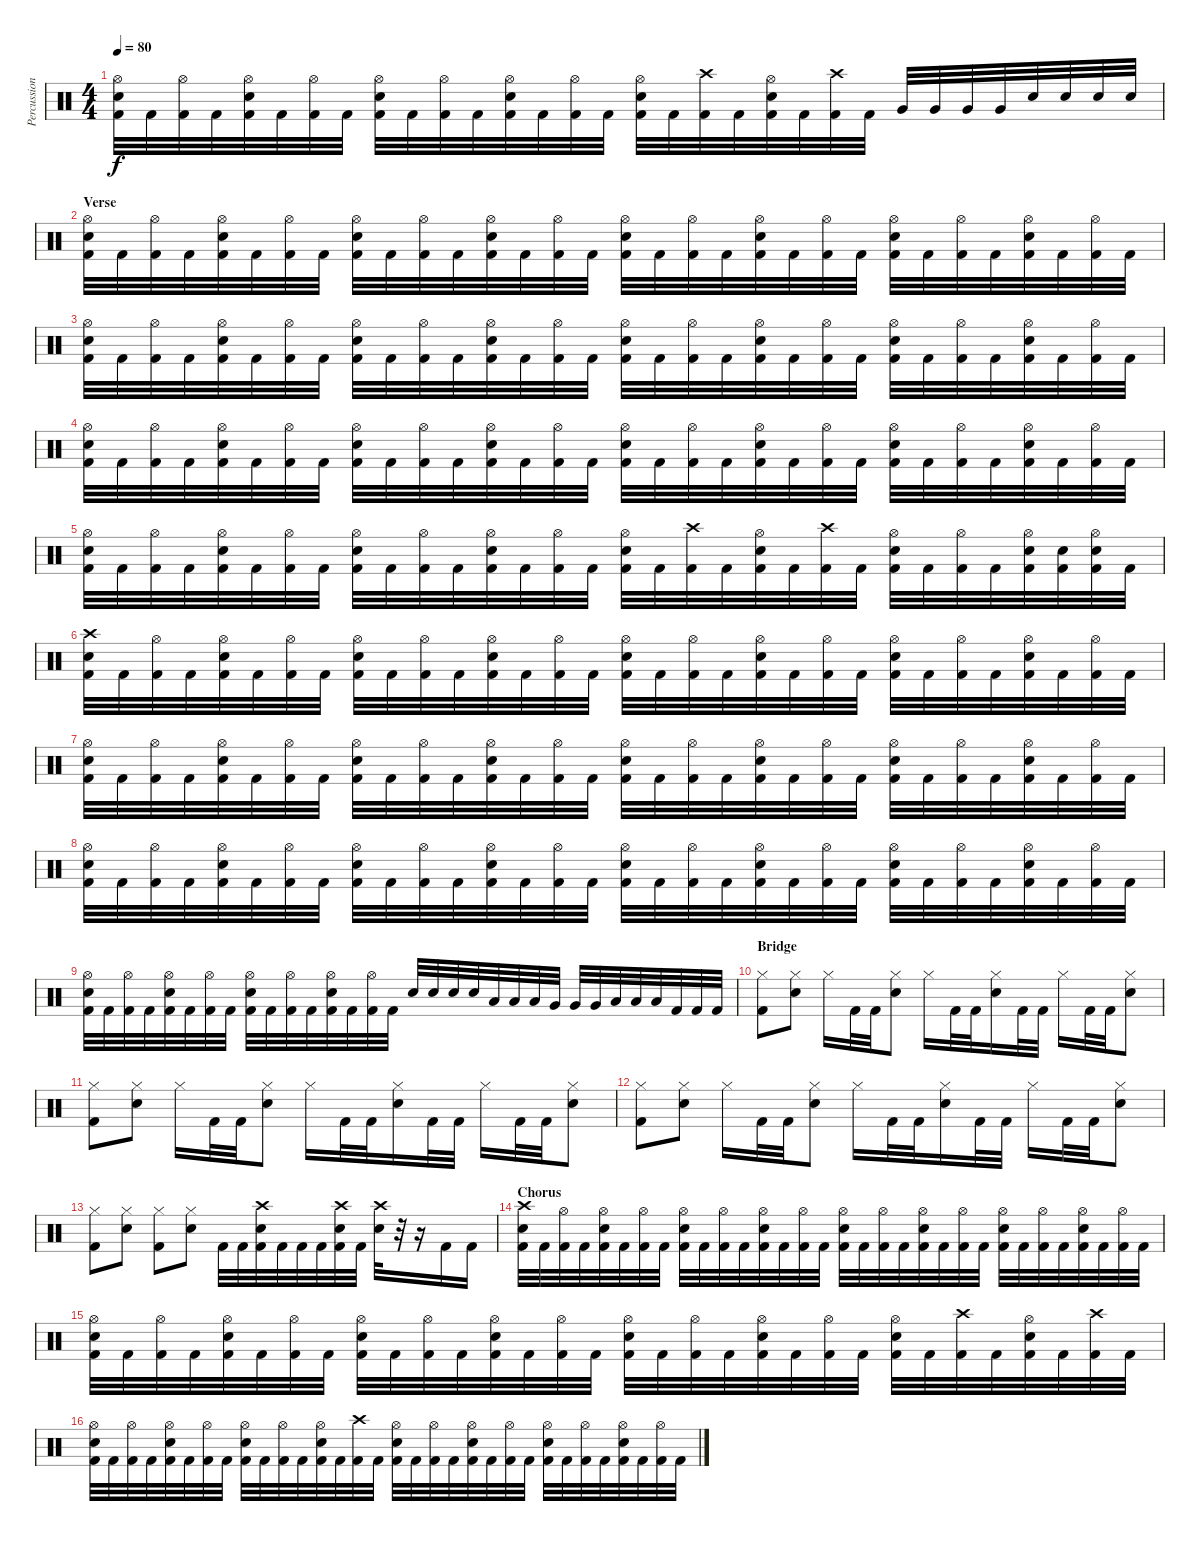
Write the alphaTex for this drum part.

\track ("Percussions" "Percussion") {instrument percussion}
\staff {score}
\articulation defaults
\ts (4 4)
\tempo 80
\clef neutral
\ks c
("Hi-Hat (open)" "Electric Snare (hit)" "Kick (hit) 2").32{dy f} "Kick (hit) 2".32 ("Hi-Hat (open)" "Kick (hit) 2").32 "Kick (hit) 2".32 ("Hi-Hat (open)" "Electric Snare (hit)" "Kick (hit) 2").32 "Kick (hit) 2".32 ("Hi-Hat (open)" "Kick (hit) 2").32 "Kick (hit) 2".32 ("Hi-Hat (open)" "Electric Snare (hit)" "Kick (hit) 2").32 "Kick (hit) 2".32 ("Hi-Hat (open)" "Kick (hit) 2").32 "Kick (hit) 2".32 ("Hi-Hat (open)" "Electric Snare (hit)" "Kick (hit) 2").32 "Kick (hit) 2".32 ("Hi-Hat (open)" "Kick (hit) 2").32 "Kick (hit) 2".32 ("Hi-Hat (open)" "Electric Snare (hit)" "Kick (hit) 2").32 "Kick (hit) 2".32 ("Crash high (hit)" "Kick (hit) 2").32 "Kick (hit) 2".32 ("Hi-Hat (open)" "Electric Snare (hit)" "Kick (hit) 2").32 "Kick (hit) 2".32 ("Crash high (hit)" "Kick (hit) 2").32 "Kick (hit) 2".32 "Very Low Tom (hit)".32 "Very Low Tom (hit)".32 "Very Low Tom (hit)".32 "Very Low Tom (hit)".32 "Electric Snare (hit)".32 "Electric Snare (hit)".32 "Electric Snare (hit)".32 "Electric Snare (hit)".32 |
\section ("" "Verse")
("Hi-Hat (open)" "Electric Snare (hit)" "Kick (hit) 2").32 "Kick (hit) 2".32 ("Hi-Hat (open)" "Kick (hit) 2").32 "Kick (hit) 2".32 ("Hi-Hat (open)" "Electric Snare (hit)" "Kick (hit) 2").32 "Kick (hit) 2".32 ("Hi-Hat (open)" "Kick (hit) 2").32 "Kick (hit) 2".32 ("Hi-Hat (open)" "Electric Snare (hit)" "Kick (hit) 2").32 "Kick (hit) 2".32 ("Hi-Hat (open)" "Kick (hit) 2").32 "Kick (hit) 2".32 ("Hi-Hat (open)" "Electric Snare (hit)" "Kick (hit) 2").32 "Kick (hit) 2".32 ("Hi-Hat (open)" "Kick (hit) 2").32 "Kick (hit) 2".32 ("Hi-Hat (open)" "Electric Snare (hit)" "Kick (hit) 2").32 "Kick (hit) 2".32 ("Hi-Hat (open)" "Kick (hit) 2").32 "Kick (hit) 2".32 ("Hi-Hat (open)" "Electric Snare (hit)" "Kick (hit) 2").32 "Kick (hit) 2".32 ("Hi-Hat (open)" "Kick (hit) 2").32 "Kick (hit) 2".32 ("Hi-Hat (open)" "Electric Snare (hit)" "Kick (hit) 2").32 "Kick (hit) 2".32 ("Hi-Hat (open)" "Kick (hit) 2").32 "Kick (hit) 2".32 ("Hi-Hat (open)" "Electric Snare (hit)" "Kick (hit) 2").32 "Kick (hit) 2".32 ("Hi-Hat (open)" "Kick (hit) 2").32 "Kick (hit) 2".32 |
("Hi-Hat (open)" "Electric Snare (hit)" "Kick (hit) 2").32 "Kick (hit) 2".32 ("Hi-Hat (open)" "Kick (hit) 2").32 "Kick (hit) 2".32 ("Hi-Hat (open)" "Electric Snare (hit)" "Kick (hit) 2").32 "Kick (hit) 2".32 ("Hi-Hat (open)" "Kick (hit) 2").32 "Kick (hit) 2".32 ("Hi-Hat (open)" "Electric Snare (hit)" "Kick (hit) 2").32 "Kick (hit) 2".32 ("Hi-Hat (open)" "Kick (hit) 2").32 "Kick (hit) 2".32 ("Hi-Hat (open)" "Electric Snare (hit)" "Kick (hit) 2").32 "Kick (hit) 2".32 ("Hi-Hat (open)" "Kick (hit) 2").32 "Kick (hit) 2".32 ("Hi-Hat (open)" "Electric Snare (hit)" "Kick (hit) 2").32 "Kick (hit) 2".32 ("Hi-Hat (open)" "Kick (hit) 2").32 "Kick (hit) 2".32 ("Hi-Hat (open)" "Electric Snare (hit)" "Kick (hit) 2").32 "Kick (hit) 2".32 ("Hi-Hat (open)" "Kick (hit) 2").32 "Kick (hit) 2".32 ("Hi-Hat (open)" "Electric Snare (hit)" "Kick (hit) 2").32 "Kick (hit) 2".32 ("Hi-Hat (open)" "Kick (hit) 2").32 "Kick (hit) 2".32 ("Hi-Hat (open)" "Electric Snare (hit)" "Kick (hit) 2").32 "Kick (hit) 2".32 ("Hi-Hat (open)" "Kick (hit) 2").32 "Kick (hit) 2".32 |
("Hi-Hat (open)" "Electric Snare (hit)" "Kick (hit) 2").32 "Kick (hit) 2".32 ("Hi-Hat (open)" "Kick (hit) 2").32 "Kick (hit) 2".32 ("Hi-Hat (open)" "Electric Snare (hit)" "Kick (hit) 2").32 "Kick (hit) 2".32 ("Hi-Hat (open)" "Kick (hit) 2").32 "Kick (hit) 2".32 ("Hi-Hat (open)" "Electric Snare (hit)" "Kick (hit) 2").32 "Kick (hit) 2".32 ("Hi-Hat (open)" "Kick (hit) 2").32 "Kick (hit) 2".32 ("Hi-Hat (open)" "Electric Snare (hit)" "Kick (hit) 2").32 "Kick (hit) 2".32 ("Hi-Hat (open)" "Kick (hit) 2").32 "Kick (hit) 2".32 ("Hi-Hat (open)" "Electric Snare (hit)" "Kick (hit) 2").32 "Kick (hit) 2".32 ("Hi-Hat (open)" "Kick (hit) 2").32 "Kick (hit) 2".32 ("Hi-Hat (open)" "Electric Snare (hit)" "Kick (hit) 2").32 "Kick (hit) 2".32 ("Hi-Hat (open)" "Kick (hit) 2").32 "Kick (hit) 2".32 ("Hi-Hat (open)" "Electric Snare (hit)" "Kick (hit) 2").32 "Kick (hit) 2".32 ("Hi-Hat (open)" "Kick (hit) 2").32 "Kick (hit) 2".32 ("Hi-Hat (open)" "Electric Snare (hit)" "Kick (hit) 2").32 "Kick (hit) 2".32 ("Hi-Hat (open)" "Kick (hit) 2").32 "Kick (hit) 2".32 |
("Hi-Hat (open)" "Electric Snare (hit)" "Kick (hit) 2").32 "Kick (hit) 2".32 ("Hi-Hat (open)" "Kick (hit) 2").32 "Kick (hit) 2".32 ("Hi-Hat (open)" "Electric Snare (hit)" "Kick (hit) 2").32 "Kick (hit) 2".32 ("Hi-Hat (open)" "Kick (hit) 2").32 "Kick (hit) 2".32 ("Hi-Hat (open)" "Electric Snare (hit)" "Kick (hit) 2").32 "Kick (hit) 2".32 ("Hi-Hat (open)" "Kick (hit) 2").32 "Kick (hit) 2".32 ("Hi-Hat (open)" "Electric Snare (hit)" "Kick (hit) 2").32 "Kick (hit) 2".32 ("Hi-Hat (open)" "Kick (hit) 2").32 "Kick (hit) 2".32 ("Hi-Hat (open)" "Electric Snare (hit)" "Kick (hit) 2").32 "Kick (hit) 2".32 ("Crash high (hit)" "Kick (hit) 2").32 "Kick (hit) 2".32 ("Hi-Hat (open)" "Electric Snare (hit)" "Kick (hit) 2").32 "Kick (hit) 2".32 ("Crash high (hit)" "Kick (hit) 2").32 "Kick (hit) 2".32 ("Hi-Hat (open)" "Electric Snare (hit)" "Kick (hit) 2").32 "Kick (hit) 2".32 ("Hi-Hat (open)" "Kick (hit) 2").32 "Kick (hit) 2".32 ("Hi-Hat (open)" "Electric Snare (hit)" "Kick (hit) 2").32 ("Electric Snare (hit)" "Kick (hit) 2").32 ("Hi-Hat (open)" "Electric Snare (hit)" "Kick (hit) 2").32 "Kick (hit) 2".32 |
("Crash high (hit)" "Electric Snare (hit)" "Kick (hit) 2").32 "Kick (hit) 2".32 ("Hi-Hat (open)" "Kick (hit) 2").32 "Kick (hit) 2".32 ("Hi-Hat (open)" "Electric Snare (hit)" "Kick (hit) 2").32 "Kick (hit) 2".32 ("Hi-Hat (open)" "Kick (hit) 2").32 "Kick (hit) 2".32 ("Hi-Hat (open)" "Electric Snare (hit)" "Kick (hit) 2").32 "Kick (hit) 2".32 ("Hi-Hat (open)" "Kick (hit) 2").32 "Kick (hit) 2".32 ("Hi-Hat (open)" "Electric Snare (hit)" "Kick (hit) 2").32 "Kick (hit) 2".32 ("Hi-Hat (open)" "Kick (hit) 2").32 "Kick (hit) 2".32 ("Hi-Hat (open)" "Electric Snare (hit)" "Kick (hit) 2").32 "Kick (hit) 2".32 ("Hi-Hat (open)" "Kick (hit) 2").32 "Kick (hit) 2".32 ("Hi-Hat (open)" "Electric Snare (hit)" "Kick (hit) 2").32 "Kick (hit) 2".32 ("Hi-Hat (open)" "Kick (hit) 2").32 "Kick (hit) 2".32 ("Hi-Hat (open)" "Electric Snare (hit)" "Kick (hit) 2").32 "Kick (hit) 2".32 ("Hi-Hat (open)" "Kick (hit) 2").32 "Kick (hit) 2".32 ("Hi-Hat (open)" "Electric Snare (hit)" "Kick (hit) 2").32 "Kick (hit) 2".32 ("Hi-Hat (open)" "Kick (hit) 2").32 "Kick (hit) 2".32 |
("Hi-Hat (open)" "Electric Snare (hit)" "Kick (hit) 2").32 "Kick (hit) 2".32 ("Hi-Hat (open)" "Kick (hit) 2").32 "Kick (hit) 2".32 ("Hi-Hat (open)" "Electric Snare (hit)" "Kick (hit) 2").32 "Kick (hit) 2".32 ("Hi-Hat (open)" "Kick (hit) 2").32 "Kick (hit) 2".32 ("Hi-Hat (open)" "Electric Snare (hit)" "Kick (hit) 2").32 "Kick (hit) 2".32 ("Hi-Hat (open)" "Kick (hit) 2").32 "Kick (hit) 2".32 ("Hi-Hat (open)" "Electric Snare (hit)" "Kick (hit) 2").32 "Kick (hit) 2".32 ("Hi-Hat (open)" "Kick (hit) 2").32 "Kick (hit) 2".32 ("Hi-Hat (open)" "Electric Snare (hit)" "Kick (hit) 2").32 "Kick (hit) 2".32 ("Hi-Hat (open)" "Kick (hit) 2").32 "Kick (hit) 2".32 ("Hi-Hat (open)" "Electric Snare (hit)" "Kick (hit) 2").32 "Kick (hit) 2".32 ("Hi-Hat (open)" "Kick (hit) 2").32 "Kick (hit) 2".32 ("Hi-Hat (open)" "Electric Snare (hit)" "Kick (hit) 2").32 "Kick (hit) 2".32 ("Hi-Hat (open)" "Kick (hit) 2").32 "Kick (hit) 2".32 ("Hi-Hat (open)" "Electric Snare (hit)" "Kick (hit) 2").32 "Kick (hit) 2".32 ("Hi-Hat (open)" "Kick (hit) 2").32 "Kick (hit) 2".32 |
("Hi-Hat (open)" "Electric Snare (hit)" "Kick (hit) 2").32 "Kick (hit) 2".32 ("Hi-Hat (open)" "Kick (hit) 2").32 "Kick (hit) 2".32 ("Hi-Hat (open)" "Electric Snare (hit)" "Kick (hit) 2").32 "Kick (hit) 2".32 ("Hi-Hat (open)" "Kick (hit) 2").32 "Kick (hit) 2".32 ("Hi-Hat (open)" "Electric Snare (hit)" "Kick (hit) 2").32 "Kick (hit) 2".32 ("Hi-Hat (open)" "Kick (hit) 2").32 "Kick (hit) 2".32 ("Hi-Hat (open)" "Electric Snare (hit)" "Kick (hit) 2").32 "Kick (hit) 2".32 ("Hi-Hat (open)" "Kick (hit) 2").32 "Kick (hit) 2".32 ("Hi-Hat (open)" "Electric Snare (hit)" "Kick (hit) 2").32 "Kick (hit) 2".32 ("Hi-Hat (open)" "Kick (hit) 2").32 "Kick (hit) 2".32 ("Hi-Hat (open)" "Electric Snare (hit)" "Kick (hit) 2").32 "Kick (hit) 2".32 ("Hi-Hat (open)" "Kick (hit) 2").32 "Kick (hit) 2".32 ("Hi-Hat (open)" "Electric Snare (hit)" "Kick (hit) 2").32 "Kick (hit) 2".32 ("Hi-Hat (open)" "Kick (hit) 2").32 "Kick (hit) 2".32 ("Hi-Hat (open)" "Electric Snare (hit)" "Kick (hit) 2").32 "Kick (hit) 2".32 ("Hi-Hat (open)" "Kick (hit) 2").32 "Kick (hit) 2".32 |
("Hi-Hat (open)" "Electric Snare (hit)" "Kick (hit) 2").32 "Kick (hit) 2".32 ("Hi-Hat (open)" "Kick (hit) 2").32 "Kick (hit) 2".32 ("Hi-Hat (open)" "Electric Snare (hit)" "Kick (hit) 2").32 "Kick (hit) 2".32 ("Hi-Hat (open)" "Kick (hit) 2").32 "Kick (hit) 2".32 ("Hi-Hat (open)" "Electric Snare (hit)" "Kick (hit) 2").32 "Kick (hit) 2".32 ("Hi-Hat (open)" "Kick (hit) 2").32 "Kick (hit) 2".32 ("Hi-Hat (open)" "Electric Snare (hit)" "Kick (hit) 2").32 "Kick (hit) 2".32 ("Hi-Hat (open)" "Kick (hit) 2").32 "Kick (hit) 2".32 "Electric Snare (hit)".32 "Electric Snare (hit)".32 "Electric Snare (hit)".32 "Electric Snare (hit)".32 "Low Tom (hit)".32 "Low Tom (hit)".32 "Low Tom (hit)".32 "Very Low Tom (hit)".32 "Very Low Tom (hit)".32 "Very Low Tom (hit)".32 "Low Floor Tom (hit)".32 "Low Floor Tom (hit)".32 "Low Floor Tom (hit)".32 "Kick (hit) 2".32 "Kick (hit) 2".32 "Kick (hit) 2".32 |
\section ("" "Bridge")
("Hi-Hat (closed)" "Kick (hit) 2").8 ("Hi-Hat (closed)" "Electric Snare (hit)").8 "Hi-Hat (closed)".16 "Kick (hit) 2".32 "Kick (hit) 2".32 ("Hi-Hat (closed)" "Electric Snare (hit)").8 "Hi-Hat (closed)".16 "Kick (hit) 2".32 "Kick (hit) 2".32 ("Hi-Hat (closed)" "Electric Snare (hit)").16 "Kick (hit) 2".32 "Kick (hit) 2".32 "Hi-Hat (closed)".16 "Kick (hit) 2".32 "Kick (hit) 2".32 ("Hi-Hat (closed)" "Electric Snare (hit)").8 |
("Hi-Hat (closed)" "Kick (hit) 2").8 ("Hi-Hat (closed)" "Electric Snare (hit)").8 "Hi-Hat (closed)".16 "Kick (hit) 2".32 "Kick (hit) 2".32 ("Hi-Hat (closed)" "Electric Snare (hit)").8 "Hi-Hat (closed)".16 "Kick (hit) 2".32 "Kick (hit) 2".32 ("Hi-Hat (closed)" "Electric Snare (hit)").16 "Kick (hit) 2".32 "Kick (hit) 2".32 "Hi-Hat (closed)".16 "Kick (hit) 2".32 "Kick (hit) 2".32 ("Hi-Hat (closed)" "Electric Snare (hit)").8 |
("Hi-Hat (closed)" "Kick (hit) 2").8 ("Hi-Hat (closed)" "Electric Snare (hit)").8 "Hi-Hat (closed)".16 "Kick (hit) 2".32 "Kick (hit) 2".32 ("Hi-Hat (closed)" "Electric Snare (hit)").8 "Hi-Hat (closed)".16 "Kick (hit) 2".32 "Kick (hit) 2".32 ("Hi-Hat (closed)" "Electric Snare (hit)").16 "Kick (hit) 2".32 "Kick (hit) 2".32 "Hi-Hat (closed)".16 "Kick (hit) 2".32 "Kick (hit) 2".32 ("Hi-Hat (closed)" "Electric Snare (hit)").8 |
("Hi-Hat (closed)" "Kick (hit) 2").8 ("Hi-Hat (closed)" "Electric Snare (hit)").8 ("Hi-Hat (closed)" "Kick (hit) 2").8 ("Hi-Hat (closed)" "Electric Snare (hit)").8 "Kick (hit) 2".32 "Kick (hit) 2".32 ("Crash high (hit)" "Electric Snare (hit)" "Kick (hit) 2").32 "Kick (hit) 2".32 "Kick (hit) 2".32 "Kick (hit) 2".32 ("Crash high (hit)" "Electric Snare (hit)" "Kick (hit) 2").32 "Kick (hit) 2".32 ("Crash high (hit)" "Electric Snare (hit)").32 r.32 r.16 "Kick (hit) 2".16 "Kick (hit) 2".16 |
\section ("" "Chorus")
("Crash high (hit)" "Electric Snare (hit)" "Kick (hit) 2").32 "Kick (hit) 2".32 ("Hi-Hat (open)" "Kick (hit) 2").32 "Kick (hit) 2".32 ("Hi-Hat (open)" "Electric Snare (hit)" "Kick (hit) 2").32 "Kick (hit) 2".32 ("Hi-Hat (open)" "Kick (hit) 2").32 "Kick (hit) 2".32 ("Hi-Hat (open)" "Electric Snare (hit)" "Kick (hit) 2").32 "Kick (hit) 2".32 ("Hi-Hat (open)" "Kick (hit) 2").32 "Kick (hit) 2".32 ("Hi-Hat (open)" "Electric Snare (hit)" "Kick (hit) 2").32 "Kick (hit) 2".32 ("Hi-Hat (open)" "Kick (hit) 2").32 "Kick (hit) 2".32 ("Hi-Hat (open)" "Electric Snare (hit)" "Kick (hit) 2").32 "Kick (hit) 2".32 ("Hi-Hat (open)" "Kick (hit) 2").32 "Kick (hit) 2".32 ("Hi-Hat (open)" "Electric Snare (hit)" "Kick (hit) 2").32 "Kick (hit) 2".32 ("Hi-Hat (open)" "Kick (hit) 2").32 "Kick (hit) 2".32 ("Hi-Hat (open)" "Electric Snare (hit)" "Kick (hit) 2").32 "Kick (hit) 2".32 ("Hi-Hat (open)" "Kick (hit) 2").32 "Kick (hit) 2".32 ("Hi-Hat (open)" "Electric Snare (hit)" "Kick (hit) 2").32 "Kick (hit) 2".32 ("Hi-Hat (open)" "Kick (hit) 2").32 "Kick (hit) 2".32 |
("Hi-Hat (open)" "Electric Snare (hit)" "Kick (hit) 2").32 "Kick (hit) 2".32 ("Hi-Hat (open)" "Kick (hit) 2").32 "Kick (hit) 2".32 ("Hi-Hat (open)" "Electric Snare (hit)" "Kick (hit) 2").32 "Kick (hit) 2".32 ("Hi-Hat (open)" "Kick (hit) 2").32 "Kick (hit) 2".32 ("Hi-Hat (open)" "Electric Snare (hit)" "Kick (hit) 2").32 "Kick (hit) 2".32 ("Hi-Hat (open)" "Kick (hit) 2").32 "Kick (hit) 2".32 ("Hi-Hat (open)" "Electric Snare (hit)" "Kick (hit) 2").32 "Kick (hit) 2".32 ("Hi-Hat (open)" "Kick (hit) 2").32 "Kick (hit) 2".32 ("Hi-Hat (open)" "Electric Snare (hit)" "Kick (hit) 2").32 "Kick (hit) 2".32 ("Hi-Hat (open)" "Kick (hit) 2").32 "Kick (hit) 2".32 ("Hi-Hat (open)" "Electric Snare (hit)" "Kick (hit) 2").32 "Kick (hit) 2".32 ("Hi-Hat (open)" "Kick (hit) 2").32 "Kick (hit) 2".32 ("Hi-Hat (open)" "Electric Snare (hit)" "Kick (hit) 2").32 "Kick (hit) 2".32 ("Crash high (hit)" "Kick (hit) 2").32 "Kick (hit) 2".32 ("Hi-Hat (open)" "Electric Snare (hit)" "Kick (hit) 2").32 "Kick (hit) 2".32 ("Crash high (hit)" "Kick (hit) 2").32 "Kick (hit) 2".32 |
("Hi-Hat (open)" "Electric Snare (hit)" "Kick (hit) 2").32 "Kick (hit) 2".32 ("Hi-Hat (open)" "Kick (hit) 2").32 "Kick (hit) 2".32 ("Hi-Hat (open)" "Electric Snare (hit)" "Kick (hit) 2").32 "Kick (hit) 2".32 ("Hi-Hat (open)" "Kick (hit) 2").32 "Kick (hit) 2".32 ("Hi-Hat (open)" "Electric Snare (hit)" "Kick (hit) 2").32 "Kick (hit) 2".32 ("Hi-Hat (open)" "Kick (hit) 2").32 "Kick (hit) 2".32 ("Hi-Hat (open)" "Electric Snare (hit)" "Kick (hit) 2").32 "Kick (hit) 2".32 ("Crash high (hit)" "Kick (hit) 2").32 "Kick (hit) 2".32 ("Hi-Hat (open)" "Electric Snare (hit)" "Kick (hit) 2").32 "Kick (hit) 2".32 ("Hi-Hat (open)" "Kick (hit) 2").32 "Kick (hit) 2".32 ("Hi-Hat (open)" "Electric Snare (hit)" "Kick (hit) 2").32 "Kick (hit) 2".32 ("Hi-Hat (open)" "Kick (hit) 2").32 "Kick (hit) 2".32 ("Hi-Hat (open)" "Electric Snare (hit)" "Kick (hit) 2").32 "Kick (hit) 2".32 ("Hi-Hat (open)" "Kick (hit) 2").32 "Kick (hit) 2".32 ("Hi-Hat (open)" "Electric Snare (hit)" "Kick (hit) 2").32 "Kick (hit) 2".32 ("Hi-Hat (open)" "Kick (hit) 2").32 "Kick (hit) 2".32
